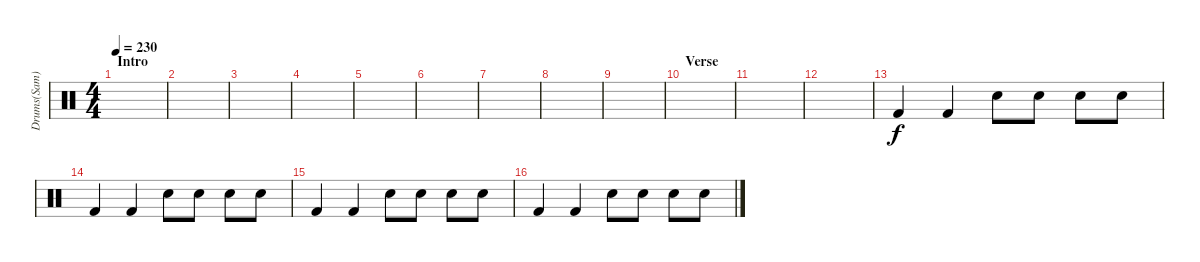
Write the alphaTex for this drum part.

\track ("Drums(Sam)" "Drums(Sam)") {instrument percussion}
\staff {score}
\articulation defaults
\ts (4 4)
\section ("" "Intro")
\tempo 230
\clef neutral
\ks c
|
|
|
|
\section ("" "")
|
|
|
|
|
\section ("" "Verse")
|
|
|
"Kick (hit) 2".4 "Kick (hit) 2".4 "Snare (hit) 2".8 "Snare (hit) 2".8 "Snare (hit) 2".8 "Snare (hit) 2".8 |
"Kick (hit) 2".4 "Kick (hit) 2".4 "Snare (hit) 2".8 "Snare (hit) 2".8 "Snare (hit) 2".8 "Snare (hit) 2".8 |
"Kick (hit) 2".4 "Kick (hit) 2".4 "Snare (hit) 2".8 "Snare (hit) 2".8 "Snare (hit) 2".8 "Snare (hit) 2".8 |
"Kick (hit) 2".4 "Kick (hit) 2".4 "Snare (hit) 2".8 "Snare (hit) 2".8 "Snare (hit) 2".8 "Snare (hit) 2".8
